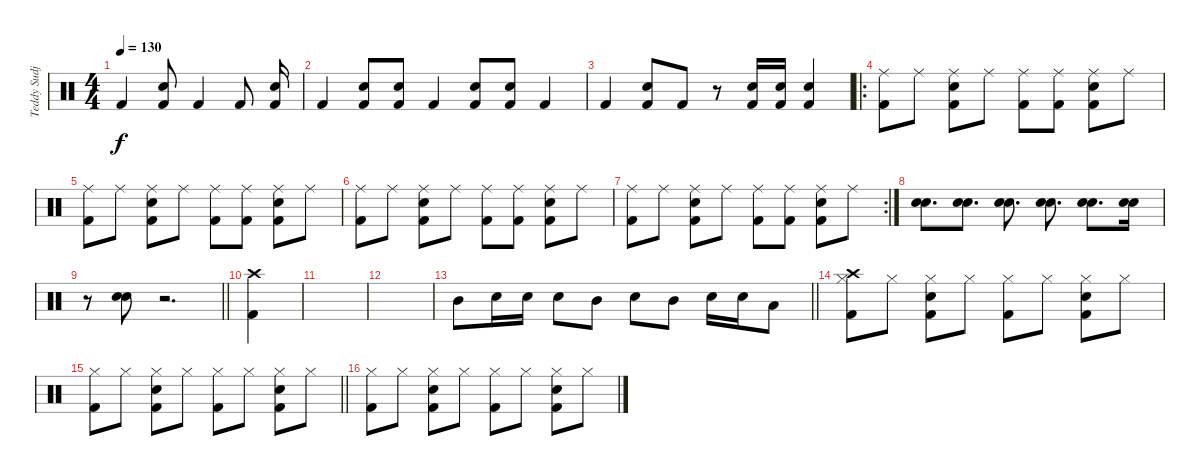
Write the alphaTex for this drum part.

\track ("Teddy Sudjaya (drum)" "Teddy Sudj") {instrument percussion}
\staff {score}
\articulation defaults
\ts (4 4)
\tempo 130
\clef neutral
\ks c "Kick (hit) 2".4{dy f}
("Snare (hit) 2" "Kick (hit) 2").8 "Kick (hit) 2".4 "Kick (hit) 2".8 ("Snare (hit) 2" "Kick (hit) 2").16 |
"Kick (hit) 2".4 ("Snare (hit) 2" "Kick (hit) 2").8 ("Snare (hit) 2" "Kick (hit) 2").8 "Kick (hit) 2".4 ("Snare (hit) 2" "Kick (hit) 2").8 ("Snare (hit) 2" "Kick (hit) 2").8 "Kick (hit) 2".4 |
"Kick (hit) 2".4 ("Snare (hit) 2" "Kick (hit) 2").8 "Kick (hit) 2".8 r.8 ("Snare (hit) 2" "Kick (hit) 2").16 ("Snare (hit) 2" "Kick (hit) 2").16 ("Snare (hit) 2" "Kick (hit) 2").4 |
\ro
("Ride (middle)" "Kick (hit) 2").8 "Ride (middle)".8 ("Ride (middle)" "Snare (hit) 2" "Kick (hit) 2").8 "Ride (middle)".8 ("Ride (middle)" "Kick (hit) 2").8 ("Ride (middle)" "Kick (hit) 2").8 ("Ride (middle)" "Snare (hit) 2" "Kick (hit) 2").8 "Ride (middle)".8 |
("Ride (middle)" "Kick (hit) 2").8 "Ride (middle)".8 ("Ride (middle)" "Snare (hit) 2" "Kick (hit) 2").8 "Ride (middle)".8 ("Ride (middle)" "Kick (hit) 2").8 ("Ride (middle)" "Kick (hit) 2").8 ("Ride (middle)" "Snare (hit) 2" "Kick (hit) 2").8 "Ride (middle)".8 |
("Ride (middle)" "Kick (hit) 2").8 "Ride (middle)".8 ("Ride (middle)" "Snare (hit) 2" "Kick (hit) 2").8 "Ride (middle)".8 ("Ride (middle)" "Kick (hit) 2").8 ("Ride (middle)" "Kick (hit) 2").8 ("Ride (middle)" "Snare (hit) 2" "Kick (hit) 2").8 "Ride (middle)".8 |
\rc 2
("Ride (middle)" "Kick (hit) 2").8 "Ride (middle)".8 ("Ride (middle)" "Snare (hit) 2" "Kick (hit) 2").8 "Ride (middle)".8 ("Ride (middle)" "Kick (hit) 2").8 ("Ride (middle)" "Kick (hit) 2").8 ("Ride (middle)" "Snare (hit) 2" "Kick (hit) 2").8 "Ride (middle)".8 |
("Electric Snare (hit)" "Snare (hit) 2").8{d} ("Electric Snare (hit)" "Snare (hit) 2").8{d} ("Electric Snare (hit)" "Snare (hit) 2").8{d} ("Electric Snare (hit)" "Snare (hit) 2").8{d} ("Electric Snare (hit)" "Snare (hit) 2").8{d} ("Electric Snare (hit)" "Snare (hit) 2").16 |
\barLineRight lightlight
r.8 ("Electric Snare (hit)" "Snare (hit) 2").8 r.2{d} |
("Crash high (hit)" "Kick (hit) 2").4 |
|
|
\barLineRight lightlight "Mid Tom (hit)".8 "Snare (hit) 2".16 "Snare (hit) 2".16 "Snare (hit) 2".8 "Mid Tom (hit)".8 "Snare (hit) 2".8 "Mid Tom (hit)".8 "Snare (hit) 2".16 "Snare (hit) 2".16 "Low Tom (hit)".8
|
("Crash high (hit)" "Hi-Hat (closed)" "Kick (hit) 2").8 "Hi-Hat (closed)".8 ("Snare (hit) 2" "Hi-Hat (closed)" "Kick (hit) 2").8 "Hi-Hat (closed)".8 ("Hi-Hat (closed)" "Kick (hit) 2").8 "Hi-Hat (closed)".8 ("Snare (hit) 2" "Hi-Hat (closed)" "Kick (hit) 2").8 "Hi-Hat (closed)".8 |
\barLineRight lightlight
("Hi-Hat (closed)" "Kick (hit) 2").8 "Hi-Hat (closed)".8 ("Snare (hit) 2" "Hi-Hat (closed)" "Kick (hit) 2").8 "Hi-Hat (closed)".8 ("Hi-Hat (closed)" "Kick (hit) 2").8 "Hi-Hat (closed)".8 ("Snare (hit) 2" "Hi-Hat (closed)" "Kick (hit) 2").8 "Hi-Hat (closed)".8 |
("Hi-Hat (closed)" "Kick (hit) 2").8 "Hi-Hat (closed)".8 ("Snare (hit) 2" "Hi-Hat (closed)" "Kick (hit) 2").8 "Hi-Hat (closed)".8 ("Hi-Hat (closed)" "Kick (hit) 2").8 "Hi-Hat (closed)".8 ("Snare (hit) 2" "Hi-Hat (closed)" "Kick (hit) 2").8 "Hi-Hat (closed)".8
